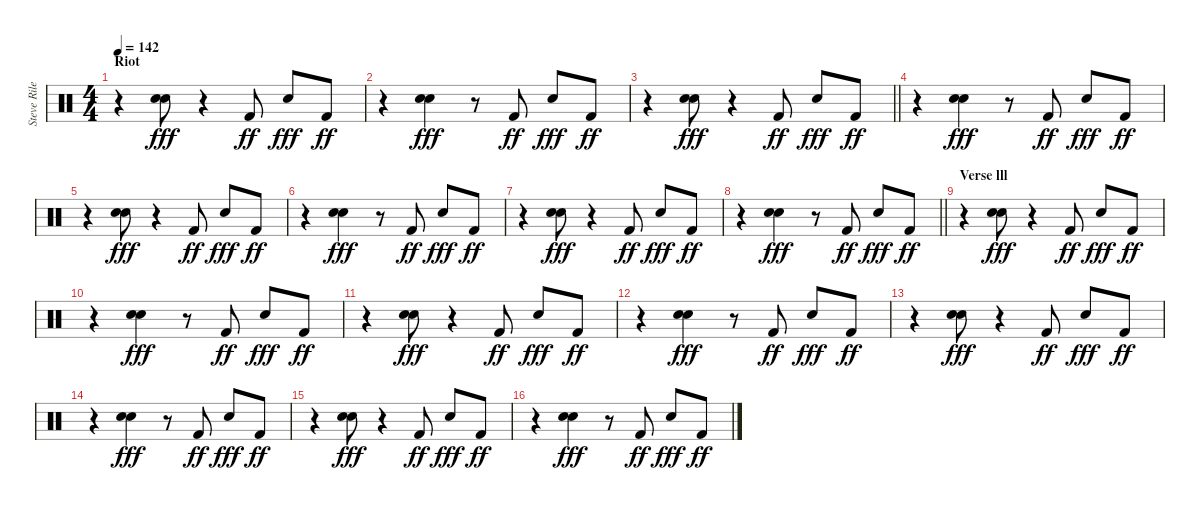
\track ("Steve Riley" "Steve Rile") {instrument percussion}
\staff {score}
\articulation defaults
\ts (4 4)
\section ("" "Riot")
\tempo 142
\clef neutral
\ks c
r.4{dy f} ("Electric Snare (hit)" "Electric Snare (hit)").8{bd 60 dy fff} r.4 "Kick (hit) 2".8{dy ff} "Electric Snare (hit)".8{dy fff} "Kick (hit) 2".8{dy ff} |
r.4 ("Electric Snare (hit)" "Electric Snare (hit)").4{bd 60 dy fff} r.8 "Kick (hit) 2".8{dy ff} "Electric Snare (hit)".8{dy fff} "Kick (hit) 2".8{dy ff} |
\barLineRight lightlight
r.4 ("Electric Snare (hit)" "Electric Snare (hit)").8{bd 60 dy fff} r.4 "Kick (hit) 2".8{dy ff} "Electric Snare (hit)".8{dy fff} "Kick (hit) 2".8{dy ff} |
\section ("" "")
r.4 ("Electric Snare (hit)" "Electric Snare (hit)").4{bd 60 dy fff} r.8 "Kick (hit) 2".8{dy ff} "Electric Snare (hit)".8{dy fff} "Kick (hit) 2".8{dy ff} |
r.4 ("Electric Snare (hit)" "Electric Snare (hit)").8{bd 60 dy fff} r.4 "Kick (hit) 2".8{dy ff} "Electric Snare (hit)".8{dy fff} "Kick (hit) 2".8{dy ff} |
r.4 ("Electric Snare (hit)" "Electric Snare (hit)").4{bd 60 dy fff} r.8 "Kick (hit) 2".8{dy ff} "Electric Snare (hit)".8{dy fff} "Kick (hit) 2".8{dy ff} |
r.4 ("Electric Snare (hit)" "Electric Snare (hit)").8{bd 60 dy fff} r.4 "Kick (hit) 2".8{dy ff} "Electric Snare (hit)".8{dy fff} "Kick (hit) 2".8{dy ff} |
\barLineRight lightlight
r.4 ("Electric Snare (hit)" "Electric Snare (hit)").4{bd 60 dy fff} r.8 "Kick (hit) 2".8{dy ff} "Electric Snare (hit)".8{dy fff} "Kick (hit) 2".8{dy ff} |
\section ("" "Verse lll")
r.4 ("Electric Snare (hit)" "Electric Snare (hit)").8{bd 60 dy fff} r.4 "Kick (hit) 2".8{dy ff} "Electric Snare (hit)".8{dy fff} "Kick (hit) 2".8{dy ff} |
r.4 ("Electric Snare (hit)" "Electric Snare (hit)").4{bd 60 dy fff} r.8 "Kick (hit) 2".8{dy ff} "Electric Snare (hit)".8{dy fff} "Kick (hit) 2".8{dy ff} |
r.4 ("Electric Snare (hit)" "Electric Snare (hit)").8{bd 60 dy fff} r.4 "Kick (hit) 2".8{dy ff} "Electric Snare (hit)".8{dy fff} "Kick (hit) 2".8{dy ff} |
r.4 ("Electric Snare (hit)" "Electric Snare (hit)").4{bd 60 dy fff} r.8 "Kick (hit) 2".8{dy ff} "Electric Snare (hit)".8{dy fff} "Kick (hit) 2".8{dy ff} |
r.4 ("Electric Snare (hit)" "Electric Snare (hit)").8{bd 60 dy fff} r.4 "Kick (hit) 2".8{dy ff} "Electric Snare (hit)".8{dy fff} "Kick (hit) 2".8{dy ff} |
r.4 ("Electric Snare (hit)" "Electric Snare (hit)").4{bd 60 dy fff} r.8 "Kick (hit) 2".8{dy ff} "Electric Snare (hit)".8{dy fff} "Kick (hit) 2".8{dy ff} |
r.4 ("Electric Snare (hit)" "Electric Snare (hit)").8{bd 60 dy fff} r.4 "Kick (hit) 2".8{dy ff} "Electric Snare (hit)".8{dy fff} "Kick (hit) 2".8{dy ff} |
r.4 ("Electric Snare (hit)" "Electric Snare (hit)").4{bd 60 dy fff} r.8 "Kick (hit) 2".8{dy ff} "Electric Snare (hit)".8{dy fff} "Kick (hit) 2".8{dy ff}
